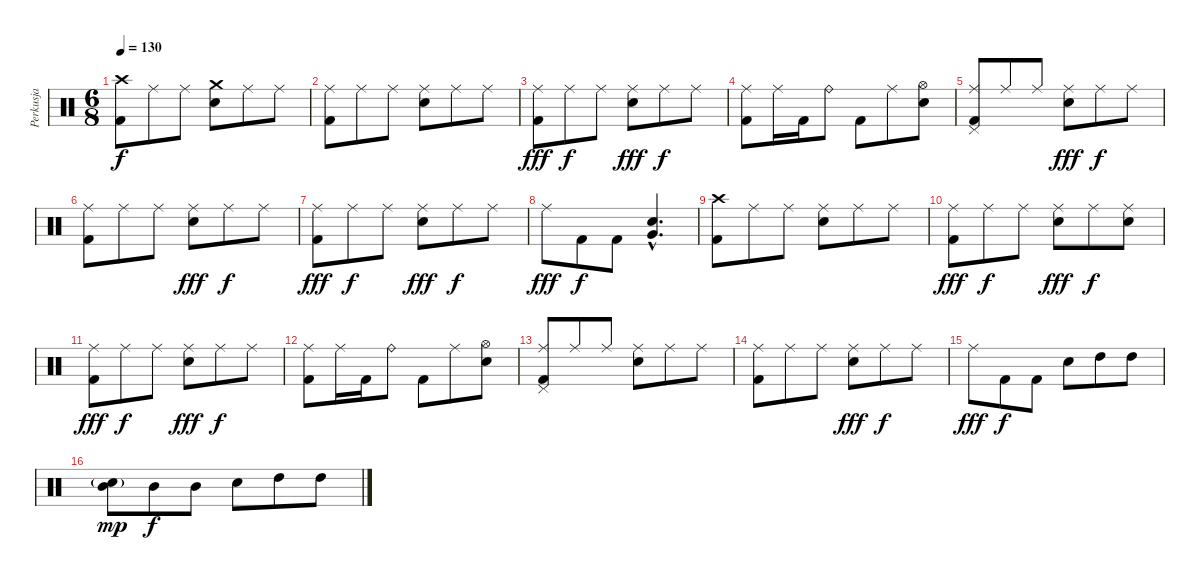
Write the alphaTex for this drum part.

\track ("Perkusja" "Perkusja") {instrument percussion}
\staff {score}
\articulation defaults
\ts (6 8)
\tempo 130
\clef neutral
\ks c
("Crash high (hit)" "Kick (hit) 2").8{dy f} "Ride (middle)".8 "Ride (middle)".8 ("Crash medium (hit)" "Electric Snare (hit)").8 "Ride (middle)".8 "Ride (middle)".8 |
("Ride (middle)" "Kick (hit) 2").8 "Ride (middle)".8 "Ride (middle)".8 ("Ride (middle)" "Electric Snare (hit)").8 "Ride (middle)".8 "Ride (middle)".8 |
("Ride (middle)" "Kick (hit) 2").8{dy fff} "Ride (middle)".8{dy f} "Ride (middle)".8 ("Ride (middle)" "Electric Snare (hit)").8{dy fff} "Ride (middle)".8{dy f} "Ride (middle)".8 |
("Ride (middle)" "Kick (hit) 2").8 "Ride (middle)".16 "Kick (hit) 2".16 "Ride (bell)".8 "Kick (hit) 2".8 "Ride (middle)".8 ("Hi-Hat (open)" "Electric Snare (hit)").8 |
("Ride (middle)" "Pedal Hi-Hat (hit)" "Kick (hit) 2").8 "Ride (middle)".8 "Ride (middle)".8 ("Ride (middle)" "Electric Snare (hit)").8{dy fff} "Ride (middle)".8{dy f} "Ride (middle)".8 |
("Ride (middle)" "Kick (hit) 2").8 "Ride (middle)".8 "Ride (middle)".8 ("Ride (middle)" "Electric Snare (hit)").8{dy fff} "Ride (middle)".8{dy f} "Ride (middle)".8 |
("Ride (middle)" "Kick (hit) 2").8{dy fff} "Ride (middle)".8{dy f} "Ride (middle)".8 ("Ride (middle)" "Electric Snare (hit)").8{dy fff} "Ride (middle)".8{dy f} "Ride (middle)".8 |
"Ride (middle)".8{dy fff} "Kick (hit) 2".8{dy f} "Kick (hit) 2".8 ("Very Low Tom (hit)"{hac} "Electric Snare (hit)"{hac}).4{d} |
("Crash high (hit)" "Kick (hit) 2").8 "Ride (middle)".8 "Ride (middle)".8 ("Ride (middle)" "Electric Snare (hit)").8 "Ride (middle)".8 "Ride (middle)".8 |
("Ride (middle)" "Kick (hit) 2").8{dy fff} "Ride (middle)".8{dy f} "Ride (middle)".8 ("Ride (middle)" "Electric Snare (hit)").8{dy fff} "Ride (middle)".8{dy f} ("Ride (middle)" "Electric Snare (hit)").8 |
("Ride (middle)" "Kick (hit) 2").8{dy fff} "Ride (middle)".8{dy f} "Ride (middle)".8 ("Ride (middle)" "Electric Snare (hit)").8{dy fff} "Ride (middle)".8{dy f} "Ride (middle)".8 |
("Ride (middle)" "Kick (hit) 2").8 "Ride (middle)".16 "Kick (hit) 2".16 "Ride (bell)".8 "Kick (hit) 2".8 "Ride (middle)".8 ("Hi-Hat (open)" "Electric Snare (hit)").8 |
("Ride (middle)" "Pedal Hi-Hat (hit)" "Kick (hit) 2").8 "Ride (middle)".8 "Ride (middle)".8 ("Ride (middle)" "Electric Snare (hit)").8 "Ride (middle)".8 "Ride (middle)".8 |
("Ride (middle)" "Kick (hit) 2").8 "Ride (middle)".8 "Ride (middle)".8 ("Ride (middle)" "Electric Snare (hit)").8{dy fff} "Ride (middle)".8{dy f} "Ride (middle)".8 |
"Ride (middle)".8{dy fff} "Kick (hit) 2".8{dy f} "Kick (hit) 2".8 "Electric Snare (hit)".8 "High Tom (hit)".8 "High Tom (hit)".8 |
("Electric Snare (hit)"{g} "Mid Tom (hit)").8{dy mp} "Mid Tom (hit)".8{dy f} "Mid Tom (hit)".8 "Electric Snare (hit)".8 "High Tom (hit)".8 "High Tom (hit)".8
